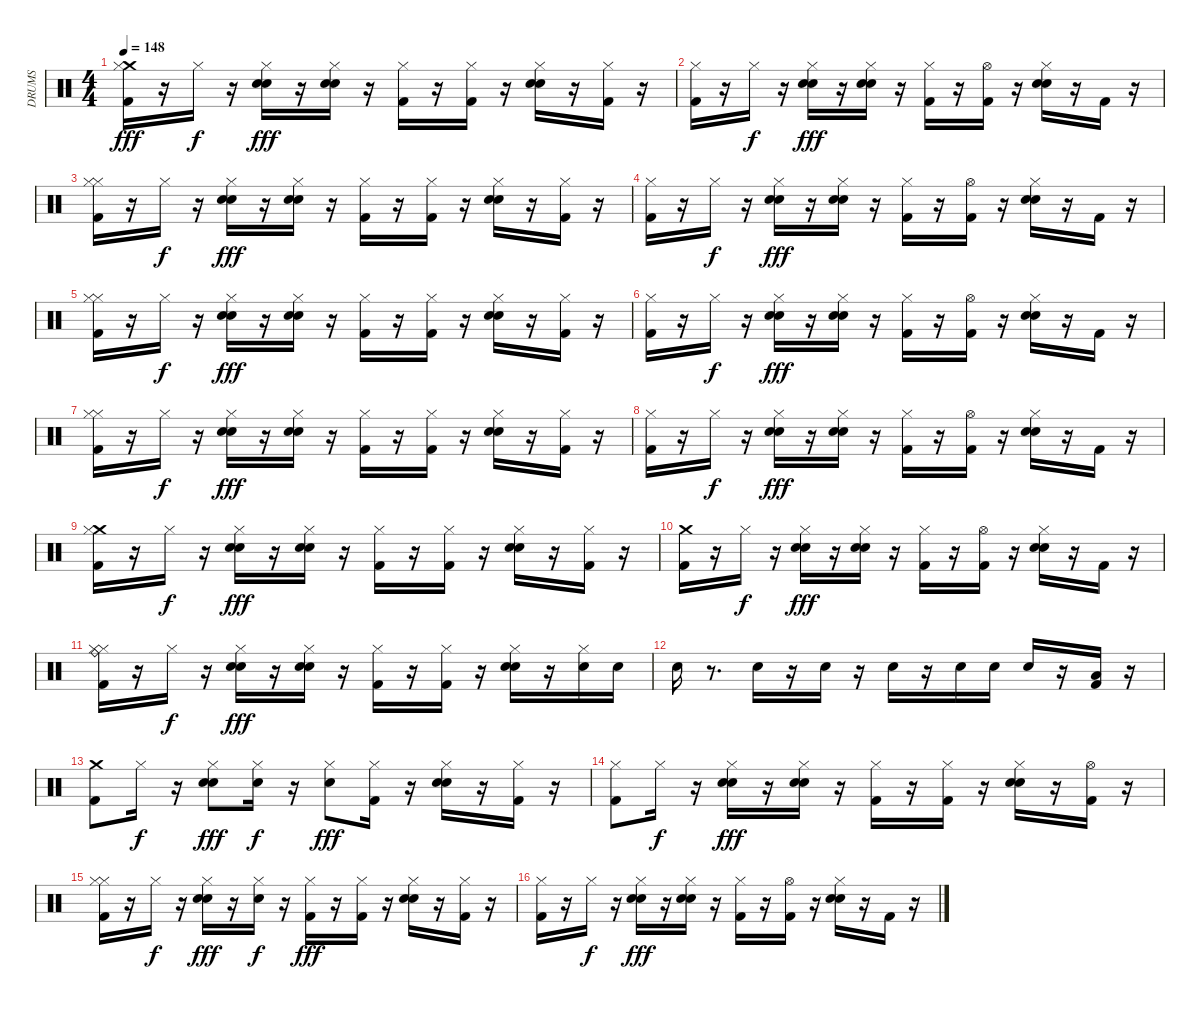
\track ("DRUMS" "DRUMS") {instrument percussion}
\staff {score}
\articulation defaults
\ts (4 4)
\tempo 148
\clef neutral
\ks c
("Crash medium (hit)" "Kick (hit) 2" "Hi-Hat (closed)").16{dy fff} r.16 "Hi-Hat (closed)".16{dy f} r.16 ("Hi-Hat (closed)" "Hand Clap (hit)" "Snare (hit) 2").16{dy fff} r.16 ("Snare (hit) 2" "Hand Clap (hit)" "Hi-Hat (closed)").16 r.16 ("Hi-Hat (closed)" "Kick (hit) 2").16 r.16 ("Hi-Hat (closed)" "Kick (hit) 2").16 r.16 ("Hi-Hat (closed)" "Hand Clap (hit)" "Snare (hit) 2").16 r.16 ("Hi-Hat (closed)" "Kick (hit) 2").16 r.16 |
("Hi-Hat (closed)" "Kick (hit) 2").16 r.16 "Hi-Hat (closed)".16{dy f} r.16 ("Hi-Hat (closed)" "Hand Clap (hit)" "Snare (hit) 2").16{dy fff} r.16 ("Hi-Hat (closed)" "Hand Clap (hit)" "Snare (hit) 2").16 r.16 ("Hi-Hat (closed)" "Kick (hit) 2").16 r.16 ("Hi-Hat (open)" "Kick (hit) 2").16 r.16 ("Hand Clap (hit)" "Snare (hit) 2" "Hi-Hat (closed)").16 r.16 "Kick (hit) 2".16 r.16 |
("Hi-Hat (closed)" "Kick (hit) 2" "Hi-Hat (closed)").16 r.16 "Hi-Hat (closed)".16{dy f} r.16 ("Hi-Hat (closed)" "Hand Clap (hit)" "Snare (hit) 2").16{dy fff} r.16 ("Snare (hit) 2" "Hand Clap (hit)" "Hi-Hat (closed)").16 r.16 ("Hi-Hat (closed)" "Kick (hit) 2").16 r.16 ("Hi-Hat (closed)" "Kick (hit) 2").16 r.16 ("Hi-Hat (closed)" "Hand Clap (hit)" "Snare (hit) 2").16 r.16 ("Hi-Hat (closed)" "Kick (hit) 2").16 r.16 |
("Hi-Hat (closed)" "Kick (hit) 2").16 r.16 "Hi-Hat (closed)".16{dy f} r.16 ("Hi-Hat (closed)" "Hand Clap (hit)" "Snare (hit) 2").16{dy fff} r.16 ("Hi-Hat (closed)" "Hand Clap (hit)" "Snare (hit) 2").16 r.16 ("Hi-Hat (closed)" "Kick (hit) 2").16 r.16 ("Hi-Hat (open)" "Kick (hit) 2").16 r.16 ("Hand Clap (hit)" "Snare (hit) 2" "Hi-Hat (closed)").16 r.16 "Kick (hit) 2".16 r.16 |
("Hi-Hat (closed)" "Kick (hit) 2" "Hi-Hat (closed)").16 r.16 "Hi-Hat (closed)".16{dy f} r.16 ("Hi-Hat (closed)" "Hand Clap (hit)" "Snare (hit) 2").16{dy fff} r.16 ("Snare (hit) 2" "Hand Clap (hit)" "Hi-Hat (closed)").16 r.16 ("Hi-Hat (closed)" "Kick (hit) 2").16 r.16 ("Hi-Hat (closed)" "Kick (hit) 2").16 r.16 ("Hi-Hat (closed)" "Hand Clap (hit)" "Snare (hit) 2").16 r.16 ("Hi-Hat (closed)" "Kick (hit) 2").16 r.16 |
("Hi-Hat (closed)" "Kick (hit) 2").16 r.16 "Hi-Hat (closed)".16{dy f} r.16 ("Hi-Hat (closed)" "Hand Clap (hit)" "Snare (hit) 2").16{dy fff} r.16 ("Hi-Hat (closed)" "Hand Clap (hit)" "Snare (hit) 2").16 r.16 ("Hi-Hat (closed)" "Kick (hit) 2").16 r.16 ("Hi-Hat (open)" "Kick (hit) 2").16 r.16 ("Hand Clap (hit)" "Snare (hit) 2" "Hi-Hat (closed)").16 r.16 "Kick (hit) 2".16 r.16 |
("Hi-Hat (closed)" "Kick (hit) 2" "Hi-Hat (closed)").16 r.16 "Hi-Hat (closed)".16{dy f} r.16 ("Hi-Hat (closed)" "Hand Clap (hit)" "Snare (hit) 2").16{dy fff} r.16 ("Snare (hit) 2" "Hand Clap (hit)" "Hi-Hat (closed)").16 r.16 ("Hi-Hat (closed)" "Kick (hit) 2").16 r.16 ("Hi-Hat (closed)" "Kick (hit) 2").16 r.16 ("Hi-Hat (closed)" "Hand Clap (hit)" "Snare (hit) 2").16 r.16 ("Hi-Hat (closed)" "Kick (hit) 2").16 r.16 |
("Hi-Hat (closed)" "Kick (hit) 2").16 r.16 "Hi-Hat (closed)".16{dy f} r.16 ("Hi-Hat (closed)" "Hand Clap (hit)" "Snare (hit) 2").16{dy fff} r.16 ("Hi-Hat (closed)" "Hand Clap (hit)" "Snare (hit) 2").16 r.16 ("Hi-Hat (closed)" "Kick (hit) 2").16 r.16 ("Hi-Hat (open)" "Kick (hit) 2").16 r.16 ("Hand Clap (hit)" "Snare (hit) 2" "Hi-Hat (closed)").16 r.16 "Kick (hit) 2".16 r.16 |
("Crash medium (hit)" "Kick (hit) 2" "Hi-Hat (closed)").16 r.16 "Hi-Hat (closed)".16{dy f} r.16 ("Hi-Hat (closed)" "Hand Clap (hit)" "Snare (hit) 2").16{dy fff} r.16 ("Snare (hit) 2" "Hand Clap (hit)" "Hi-Hat (closed)").16 r.16 ("Hi-Hat (closed)" "Kick (hit) 2").16 r.16 ("Hi-Hat (closed)" "Kick (hit) 2").16 r.16 ("Hi-Hat (closed)" "Hand Clap (hit)" "Snare (hit) 2").16 r.16 ("Hi-Hat (closed)" "Kick (hit) 2").16 r.16 |
("Crash medium (hit)" "Kick (hit) 2").16 r.16 "Hi-Hat (closed)".16{dy f} r.16 ("Hi-Hat (closed)" "Hand Clap (hit)" "Snare (hit) 2").16{dy fff} r.16 ("Hi-Hat (closed)" "Hand Clap (hit)" "Snare (hit) 2").16 r.16 ("Hi-Hat (closed)" "Kick (hit) 2").16 r.16 ("Hi-Hat (open)" "Kick (hit) 2").16 r.16 ("Hand Clap (hit)" "Snare (hit) 2" "Hi-Hat (closed)").16 r.16 "Kick (hit) 2".16 r.16 |
("Ride (bell)" "Hi-Hat (closed)" "Kick (hit) 2" "Hi-Hat (closed)").16 r.16 "Hi-Hat (closed)".16{dy f} r.16 ("Hi-Hat (closed)" "Hand Clap (hit)" "Snare (hit) 2").16{dy fff} r.16 ("Snare (hit) 2" "Hand Clap (hit)" "Hi-Hat (closed)").16 r.16 ("Hi-Hat (closed)" "Kick (hit) 2").16 r.16 ("Hi-Hat (closed)" "Kick (hit) 2").16 r.16 ("Hi-Hat (closed)" "Hand Clap (hit)" "Snare (hit) 2").16 r.16 ("Hi-Hat (closed)" "Snare (hit) 2").16 "Snare (hit) 2".16 |
"Snare (hit) 2".16 r.8{d} "Snare (hit) 2".16 r.16 "Snare (hit) 2".16 r.16 "Snare (hit) 2".16 r.16 "Snare (hit) 2".16 "Snare (hit) 2".16 "Snare (hit) 2".16 r.16 ("Low Floor Tom (hit)" "Kick (hit) 2").16 r.16 |
("Kick (hit) 2" "Crash medium (hit)").8 "Hi-Hat (closed)".16{dy f} r.16 ("Snare (hit) 2" "Hi-Hat (closed)" "Hand Clap (hit)").8{dy fff} ("Hand Clap (hit)" "Hi-Hat (closed)").16{dy f} r.16 ("Snare (hit) 2" "Hi-Hat (closed)").8{dy fff} ("Kick (hit) 2" "Hi-Hat (closed)").16 r.16 ("Hi-Hat (closed)" "Snare (hit) 2" "Hand Clap (hit)").16 r.16 ("Hi-Hat (closed)" "Kick (hit) 2").16 r.16 |
("Kick (hit) 2" "Hi-Hat (closed)").8 "Hi-Hat (closed)".16{dy f} r.16 ("Hand Clap (hit)" "Snare (hit) 2" "Hi-Hat (closed)").16{dy fff} r.16 ("Hand Clap (hit)" "Hi-Hat (closed)" "Snare (hit) 2").16 r.16 ("Hi-Hat (closed)" "Kick (hit) 2").16 r.16 ("Hi-Hat (closed)" "Kick (hit) 2").16 r.16 ("Hi-Hat (closed)" "Snare (hit) 2" "Hand Clap (hit)").16 r.16 ("Hi-Hat (open)" "Kick (hit) 2").16 r.16 |
("Hi-Hat (closed)" "Kick (hit) 2" "Hi-Hat (closed)").16 r.16 "Hi-Hat (closed)".16{dy f} r.16 ("Hi-Hat (closed)" "Hand Clap (hit)" "Snare (hit) 2").16{dy fff} r.16 ("Hand Clap (hit)" "Hi-Hat (closed)").16{dy f} r.16 ("Hi-Hat (closed)" "Kick (hit) 2").16{dy fff} r.16 ("Hi-Hat (closed)" "Kick (hit) 2").16 r.16 ("Hi-Hat (closed)" "Hand Clap (hit)" "Snare (hit) 2").16 r.16 ("Hi-Hat (closed)" "Kick (hit) 2").16 r.16 |
("Hi-Hat (closed)" "Kick (hit) 2").16 r.16 "Hi-Hat (closed)".16{dy f} r.16 ("Hi-Hat (closed)" "Hand Clap (hit)" "Snare (hit) 2").16{dy fff} r.16 ("Hi-Hat (closed)" "Hand Clap (hit)" "Snare (hit) 2").16 r.16 ("Hi-Hat (closed)" "Kick (hit) 2").16 r.16 ("Hi-Hat (open)" "Kick (hit) 2").16 r.16 ("Hand Clap (hit)" "Snare (hit) 2" "Hi-Hat (closed)").16 r.16 "Kick (hit) 2".16 r.16
